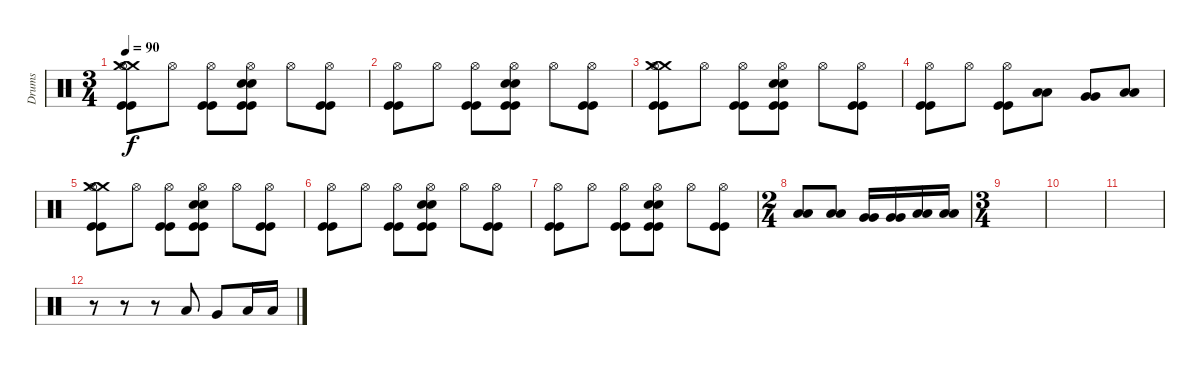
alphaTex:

\track ("Drums" "Drums") {instrument percussion}
\staff {score}
\articulation defaults
\ts (3 4)
\tempo 90
\clef neutral
\ks c
("Crash medium (hit)" "Hi-Hat (open)" "Crash medium (hit)" "Kick (hit)" "Kick (hit)").8{dy f} "Hi-Hat (open)".8 ("Hi-Hat (open)" "Kick (hit)" "Kick (hit)").8 ("Hi-Hat (open)" "Electric Snare (hit)" "Electric Snare (hit)" "Kick (hit)" "Kick (hit)").8 "Hi-Hat (open)".8 ("Hi-Hat (open)" "Kick (hit)" "Kick (hit)").8 |
("Hi-Hat (open)" "Kick (hit)" "Kick (hit)").8 "Hi-Hat (open)".8 ("Hi-Hat (open)" "Kick (hit)" "Kick (hit)").8 ("Hi-Hat (open)" "Electric Snare (hit)" "Electric Snare (hit)" "Kick (hit)" "Kick (hit)").8 "Hi-Hat (open)".8 ("Hi-Hat (open)" "Kick (hit)" "Kick (hit)").8 |
("Crash medium (hit)" "Hi-Hat (open)" "Crash medium (hit)" "Kick (hit)" "Kick (hit)").8 "Hi-Hat (open)".8 ("Hi-Hat (open)" "Kick (hit)" "Kick (hit)").8 ("Hi-Hat (open)" "Snare (hit)" "Electric Snare (hit)" "Kick (hit)" "Kick (hit)").8 "Hi-Hat (open)".8 ("Hi-Hat (open)" "Kick (hit)" "Kick (hit)").8 |
("Hi-Hat (open)" "Kick (hit)" "Kick (hit)").8 "Hi-Hat (open)".8 ("Hi-Hat (open)" "Kick (hit)" "Kick (hit)").8 ("Low Tom (hit)" "Low Tom (hit)").8 ("Very Low Tom (hit)" "Very Low Tom (hit)").8 ("Low Floor Tom (hit)" "Low Floor Tom (hit)").8 |
("Crash medium (hit)" "Hi-Hat (open)" "Crash medium (hit)" "Kick (hit)" "Kick (hit)").8 "Hi-Hat (open)".8 ("Hi-Hat (open)" "Kick (hit)" "Kick (hit)").8 ("Hi-Hat (open)" "Electric Snare (hit)" "Electric Snare (hit)" "Kick (hit)" "Kick (hit)").8 "Hi-Hat (open)".8 ("Hi-Hat (open)" "Kick (hit)" "Kick (hit)").8 |
("Hi-Hat (open)" "Kick (hit)" "Kick (hit)").8 "Hi-Hat (open)".8 ("Hi-Hat (open)" "Kick (hit)" "Kick (hit)").8 ("Hi-Hat (open)" "Electric Snare (hit)" "Electric Snare (hit)" "Kick (hit)" "Kick (hit)").8 "Hi-Hat (open)".8 ("Hi-Hat (open)" "Kick (hit)" "Kick (hit)").8 |
("Hi-Hat (open)" "Kick (hit)" "Kick (hit)").8 "Hi-Hat (open)".8 ("Hi-Hat (open)" "Kick (hit)" "Kick (hit)").8 ("Hi-Hat (open)" "Electric Snare (hit)" "Electric Snare (hit)" "Kick (hit)" "Kick (hit)").8 "Hi-Hat (open)".8 ("Hi-Hat (open)" "Kick (hit)" "Kick (hit)").8 |
\ts (2 4)
("Low Tom (hit)" "Low Tom (hit)").8 ("Low Tom (hit)" "Low Tom (hit)").8 ("Very Low Tom (hit)" "Very Low Tom (hit)").16 ("Very Low Tom (hit)" "Very Low Tom (hit)").16 ("Low Floor Tom (hit)" "Low Floor Tom (hit)").16 ("Low Floor Tom (hit)" "Low Floor Tom (hit)").16 |
\ts (3 4)
|
|
|
r.8 r.8 r.8 "Low Tom (hit)".8 "Very Low Tom (hit)".8 "Low Floor Tom (hit)".16 "Low Floor Tom (hit)".16
